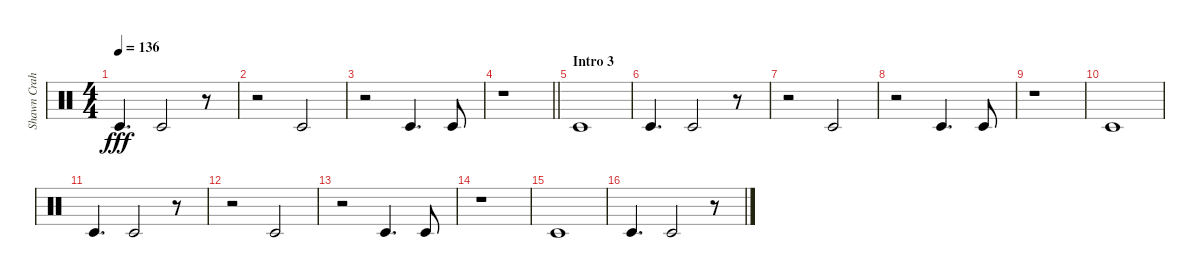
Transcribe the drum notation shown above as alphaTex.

\track ("Shawn Crahan" "Shawn Crah") {instrument percussion}
\staff {score}
\articulation defaults
\ts (4 4)
\tempo 136
\clef neutral
\ks c "Timbale low (hit)".4{d dy fff} "Timbale low (hit)".2
r.8 |
r.2 "Timbale low (hit)".2 |
r.2 "Timbale low (hit)".4{d} "Timbale low (hit)".8 |
\barLineRight lightlight
r.1 |
\section ("" "Intro 3")
"Timbale low (hit)".1 |
"Timbale low (hit)".4{d} "Timbale low (hit)".2 r.8 |
r.2 "Timbale low (hit)".2 |
r.2 "Timbale low (hit)".4{d} "Timbale low (hit)".8 |
r.1 |
"Timbale low (hit)".1 |
"Timbale low (hit)".4{d} "Timbale low (hit)".2 r.8 |
r.2 "Timbale low (hit)".2 |
r.2 "Timbale low (hit)".4{d} "Timbale low (hit)".8 |
r.1 |
"Timbale low (hit)".1 |
"Timbale low (hit)".4{d} "Timbale low (hit)".2 r.8
